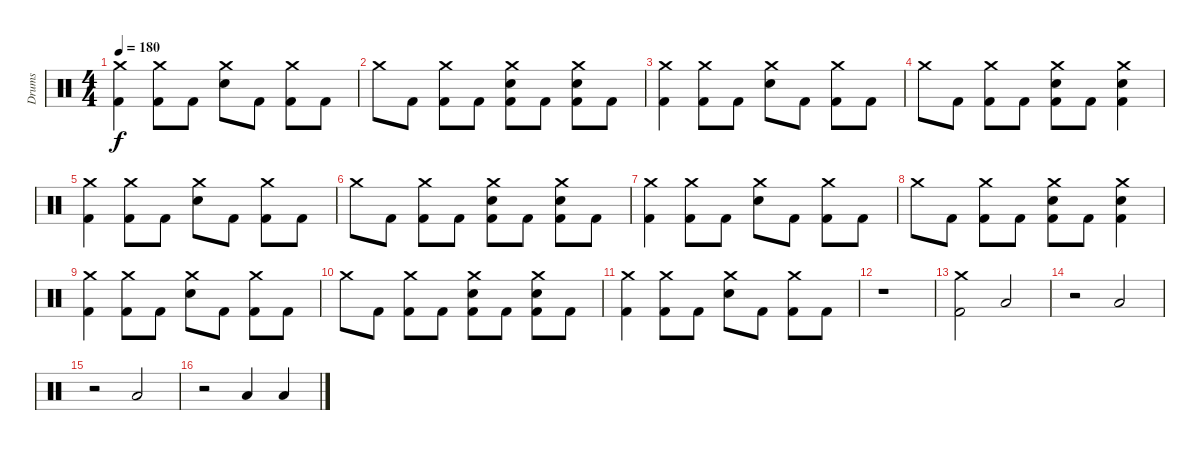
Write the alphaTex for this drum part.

\track ("Drums" "Drums") {instrument percussion}
\staff {score}
\articulation defaults
\ts (4 4)
\tempo 180
\clef neutral
\ks c
("Crash medium (hit)" "Kick (hit) 2").4{dy f} ("Crash medium (hit)" "Kick (hit) 2").8 "Kick (hit) 2".8 ("Crash medium (hit)" "Snare (hit) 2").8 "Kick (hit) 2".8 ("Crash medium (hit)" "Kick (hit) 2").8 "Kick (hit) 2".8 |
"Crash medium (hit)".8 "Kick (hit) 2".8 ("Crash medium (hit)" "Kick (hit) 2").8 "Kick (hit) 2".8 ("Crash medium (hit)" "Snare (hit) 2" "Kick (hit) 2").8 "Kick (hit) 2".8 ("Crash medium (hit)" "Snare (hit) 2" "Kick (hit) 2").8 "Kick (hit) 2".8 |
("Crash medium (hit)" "Kick (hit) 2").4 ("Crash medium (hit)" "Kick (hit) 2").8 "Kick (hit) 2".8 ("Crash medium (hit)" "Snare (hit) 2").8 "Kick (hit) 2".8 ("Crash medium (hit)" "Kick (hit) 2").8 "Kick (hit) 2".8 |
"Crash medium (hit)".8 "Kick (hit) 2".8 ("Crash medium (hit)" "Kick (hit) 2").8 "Kick (hit) 2".8 ("Crash medium (hit)" "Snare (hit) 2" "Kick (hit) 2").8 "Kick (hit) 2".8 ("Crash medium (hit)" "Snare (hit) 2" "Kick (hit) 2").4 |
("Crash medium (hit)" "Kick (hit) 2").4 ("Crash medium (hit)" "Kick (hit) 2").8 "Kick (hit) 2".8 ("Crash medium (hit)" "Snare (hit) 2").8 "Kick (hit) 2".8 ("Crash medium (hit)" "Kick (hit) 2").8 "Kick (hit) 2".8 |
"Crash medium (hit)".8 "Kick (hit) 2".8 ("Crash medium (hit)" "Kick (hit) 2").8 "Kick (hit) 2".8 ("Crash medium (hit)" "Snare (hit) 2" "Kick (hit) 2").8 "Kick (hit) 2".8 ("Crash medium (hit)" "Snare (hit) 2" "Kick (hit) 2").8 "Kick (hit) 2".8 |
("Crash medium (hit)" "Kick (hit) 2").4 ("Crash medium (hit)" "Kick (hit) 2").8 "Kick (hit) 2".8 ("Crash medium (hit)" "Snare (hit) 2").8 "Kick (hit) 2".8 ("Crash medium (hit)" "Kick (hit) 2").8 "Kick (hit) 2".8 |
"Crash medium (hit)".8 "Kick (hit) 2".8 ("Crash medium (hit)" "Kick (hit) 2").8 "Kick (hit) 2".8 ("Crash medium (hit)" "Snare (hit) 2" "Kick (hit) 2").8 "Kick (hit) 2".8 ("Crash medium (hit)" "Snare (hit) 2" "Kick (hit) 2").4 |
("Crash medium (hit)" "Kick (hit) 2").4 ("Crash medium (hit)" "Kick (hit) 2").8 "Kick (hit) 2".8 ("Crash medium (hit)" "Snare (hit) 2").8 "Kick (hit) 2".8 ("Crash medium (hit)" "Kick (hit) 2").8 "Kick (hit) 2".8 |
"Crash medium (hit)".8 "Kick (hit) 2".8 ("Crash medium (hit)" "Kick (hit) 2").8 "Kick (hit) 2".8 ("Crash medium (hit)" "Snare (hit) 2" "Kick (hit) 2").8 "Kick (hit) 2".8 ("Crash medium (hit)" "Snare (hit) 2" "Kick (hit) 2").8 "Kick (hit) 2".8 |
("Crash medium (hit)" "Kick (hit) 2").4 ("Crash medium (hit)" "Kick (hit) 2").8 "Kick (hit) 2".8 ("Crash medium (hit)" "Snare (hit) 2").8 "Kick (hit) 2".8 ("Crash medium (hit)" "Kick (hit) 2").8 "Kick (hit) 2".8 |
r.1 |
("Crash medium (hit)" "Kick (hit) 2").2 "Low Tom (hit)".2 |
r.2 "Low Tom (hit)".2 |
r.2 "Low Tom (hit)".2 |
r.2 "Low Tom (hit)".4 "Low Tom (hit)".4
